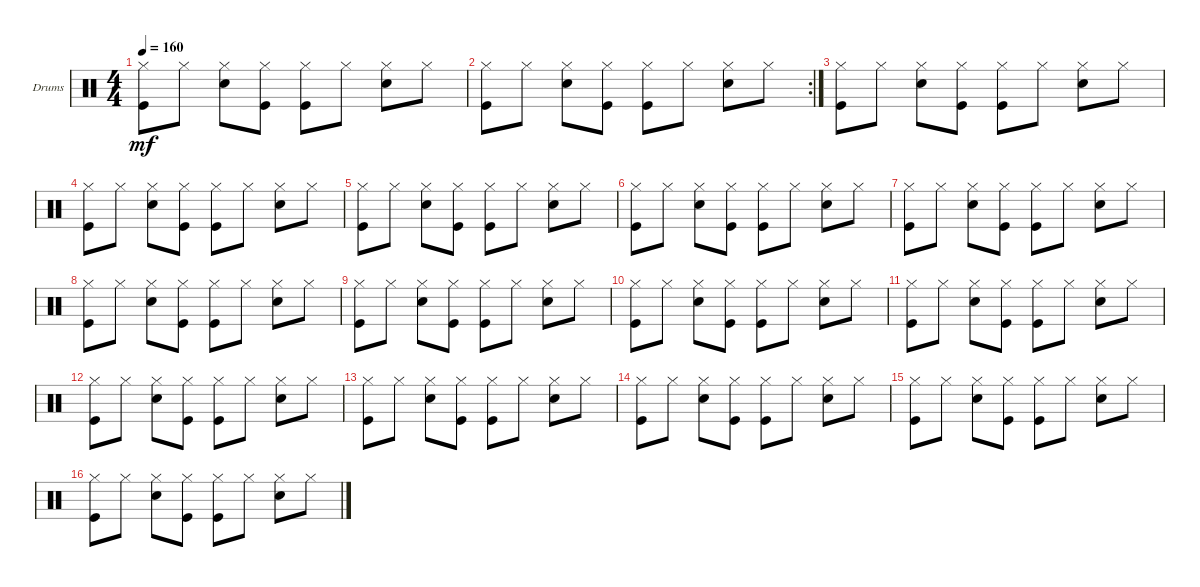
\defaultSystemsLayout 4
\bracketExtendMode groupsimilarinstruments
\firstSystemTrackNameOrientation horizontal
\otherSystemsTrackNameOrientation horizontal
\track ("Drumkit" "Drums") {instrument percussion}
\staff {score}
\articulation defaults
\ts (4 4)
\tempo 160
\clef neutral
\scale
0.322034
\ks c
("Hi-Hat (closed)" "Kick (hit)").8{dy mf} "Hi-Hat (closed)".8 ("Hi-Hat (closed)" "Snare (hit) 2").8 ("Hi-Hat (closed)" "Kick (hit)").8 ("Hi-Hat (closed)" "Kick (hit)").8 "Hi-Hat (closed)".8 ("Hi-Hat (closed)" "Snare (hit) 2").8 "Hi-Hat (closed)".8 |
\rc 2
\scale
0.355932 ("Hi-Hat (closed)" "Kick (hit)").8 "Hi-Hat (closed)".8 ("Hi-Hat (closed)" "Snare (hit) 2").8 ("Hi-Hat (closed)" "Kick (hit)").8 ("Hi-Hat (closed)" "Kick (hit)").8 "Hi-Hat (closed)".8 ("Hi-Hat (closed)" "Snare (hit) 2").8 "Hi-Hat (closed)".8 |
("Hi-Hat (closed)" "Kick (hit)").8 "Hi-Hat (closed)".8 ("Hi-Hat (closed)" "Snare (hit) 2").8 ("Hi-Hat (closed)" "Kick (hit)").8 ("Hi-Hat (closed)" "Kick (hit)").8 "Hi-Hat (closed)".8 ("Hi-Hat (closed)" "Snare (hit) 2").8 "Hi-Hat (closed)".8 |
\scale
0.333333 ("Hi-Hat (closed)" "Kick (hit)").8 "Hi-Hat (closed)".8 ("Hi-Hat (closed)" "Snare (hit) 2").8 ("Hi-Hat (closed)" "Kick (hit)").8 ("Hi-Hat (closed)" "Kick (hit)").8 "Hi-Hat (closed)".8 ("Hi-Hat (closed)" "Snare (hit) 2").8 "Hi-Hat (closed)".8 |
("Hi-Hat (closed)" "Kick (hit)").8 "Hi-Hat (closed)".8 ("Hi-Hat (closed)" "Snare (hit) 2").8 ("Hi-Hat (closed)" "Kick (hit)").8 ("Hi-Hat (closed)" "Kick (hit)").8 "Hi-Hat (closed)".8 ("Hi-Hat (closed)" "Snare (hit) 2").8 "Hi-Hat (closed)".8 |
("Hi-Hat (closed)" "Kick (hit)").8 "Hi-Hat (closed)".8 ("Hi-Hat (closed)" "Snare (hit) 2").8 ("Hi-Hat (closed)" "Kick (hit)").8 ("Hi-Hat (closed)" "Kick (hit)").8 "Hi-Hat (closed)".8 ("Hi-Hat (closed)" "Snare (hit) 2").8 "Hi-Hat (closed)".8 |
\scale
0.333333 ("Hi-Hat (closed)" "Kick (hit)").8 "Hi-Hat (closed)".8 ("Hi-Hat (closed)" "Snare (hit) 2").8 ("Hi-Hat (closed)" "Kick (hit)").8 ("Hi-Hat (closed)" "Kick (hit)").8 "Hi-Hat (closed)".8 ("Hi-Hat (closed)" "Snare (hit) 2").8 "Hi-Hat (closed)".8 |
\scale
0.333333 ("Hi-Hat (closed)" "Kick (hit)").8 "Hi-Hat (closed)".8 ("Hi-Hat (closed)" "Snare (hit) 2").8 ("Hi-Hat (closed)" "Kick (hit)").8 ("Hi-Hat (closed)" "Kick (hit)").8 "Hi-Hat (closed)".8 ("Hi-Hat (closed)" "Snare (hit) 2").8 "Hi-Hat (closed)".8 |
\scale
0.333333 ("Hi-Hat (closed)" "Kick (hit)").8 "Hi-Hat (closed)".8 ("Hi-Hat (closed)" "Snare (hit) 2").8 ("Hi-Hat (closed)" "Kick (hit)").8 ("Hi-Hat (closed)" "Kick (hit)").8 "Hi-Hat (closed)".8 ("Hi-Hat (closed)" "Snare (hit) 2").8 "Hi-Hat (closed)".8 |
\scale
0.333333 ("Hi-Hat (closed)" "Kick (hit)").8 "Hi-Hat (closed)".8 ("Hi-Hat (closed)" "Snare (hit) 2").8 ("Hi-Hat (closed)" "Kick (hit)").8 ("Hi-Hat (closed)" "Kick (hit)").8 "Hi-Hat (closed)".8 ("Hi-Hat (closed)" "Snare (hit) 2").8 "Hi-Hat (closed)".8 |
\scale
0.333333 ("Hi-Hat (closed)" "Kick (hit)").8 "Hi-Hat (closed)".8 ("Hi-Hat (closed)" "Snare (hit) 2").8 ("Hi-Hat (closed)" "Kick (hit)").8 ("Hi-Hat (closed)" "Kick (hit)").8 "Hi-Hat (closed)".8 ("Hi-Hat (closed)" "Snare (hit) 2").8 "Hi-Hat (closed)".8 |
\scale
0.333333 ("Hi-Hat (closed)" "Kick (hit)").8 "Hi-Hat (closed)".8 ("Hi-Hat (closed)" "Snare (hit) 2").8 ("Hi-Hat (closed)" "Kick (hit)").8 ("Hi-Hat (closed)" "Kick (hit)").8 "Hi-Hat (closed)".8 ("Hi-Hat (closed)" "Snare (hit) 2").8 "Hi-Hat (closed)".8 |
\scale
0.333333 ("Hi-Hat (closed)" "Kick (hit)").8 "Hi-Hat (closed)".8 ("Hi-Hat (closed)" "Snare (hit) 2").8 ("Hi-Hat (closed)" "Kick (hit)").8 ("Hi-Hat (closed)" "Kick (hit)").8 "Hi-Hat (closed)".8 ("Hi-Hat (closed)" "Snare (hit) 2").8 "Hi-Hat (closed)".8 |
\scale
0.333333 ("Hi-Hat (closed)" "Kick (hit)").8 "Hi-Hat (closed)".8 ("Hi-Hat (closed)" "Snare (hit) 2").8 ("Hi-Hat (closed)" "Kick (hit)").8 ("Hi-Hat (closed)" "Kick (hit)").8 "Hi-Hat (closed)".8 ("Hi-Hat (closed)" "Snare (hit) 2").8 "Hi-Hat (closed)".8 |
\scale
0.333333 ("Hi-Hat (closed)" "Kick (hit)").8 "Hi-Hat (closed)".8 ("Hi-Hat (closed)" "Snare (hit) 2").8 ("Hi-Hat (closed)" "Kick (hit)").8 ("Hi-Hat (closed)" "Kick (hit)").8 "Hi-Hat (closed)".8 ("Hi-Hat (closed)" "Snare (hit) 2").8 "Hi-Hat (closed)".8 |
\scale
0.333333 ("Hi-Hat (closed)" "Kick (hit)").8 "Hi-Hat (closed)".8 ("Hi-Hat (closed)" "Snare (hit) 2").8 ("Hi-Hat (closed)" "Kick (hit)").8 ("Hi-Hat (closed)" "Kick (hit)").8 "Hi-Hat (closed)".8 ("Hi-Hat (closed)" "Snare (hit) 2").8 "Hi-Hat (closed)".8
